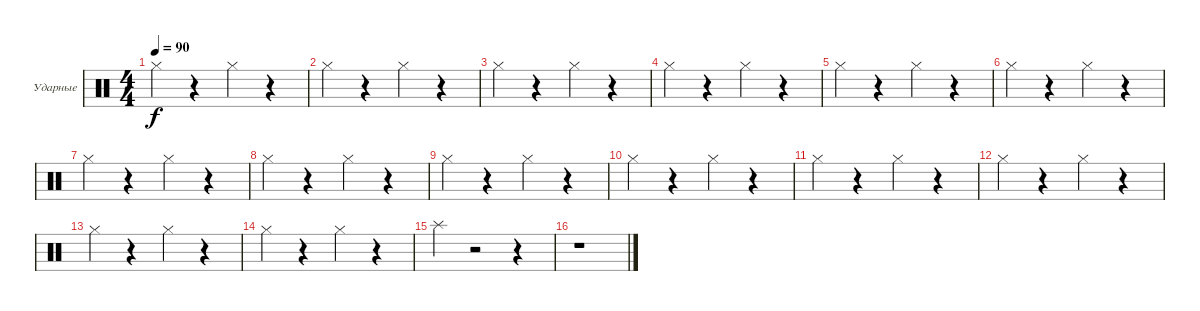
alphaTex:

\defaultSystemsLayout 4
\bracketExtendMode groupsimilarinstruments
\firstSystemTrackNameOrientation horizontal
\otherSystemsTrackNameOrientation horizontal
\track ("Drums" "Ударные") {instrument percussion}
\staff {score}
\articulation defaults
\ts (4 4)
\tempo 90
\clef neutral
\ks c "Hi-Hat (closed)".4{dy f}
r.4 "Hi-Hat (closed)".4 r.4 |
"Hi-Hat (closed)".4 r.4 "Hi-Hat (closed)".4 r.4 |
"Hi-Hat (closed)".4 r.4 "Hi-Hat (closed)".4 r.4 |
"Hi-Hat (closed)".4 r.4 "Hi-Hat (closed)".4 r.4 |
"Hi-Hat (closed)".4 r.4 "Hi-Hat (closed)".4 r.4 |
"Hi-Hat (closed)".4 r.4 "Hi-Hat (closed)".4 r.4 |
"Hi-Hat (closed)".4 r.4 "Hi-Hat (closed)".4 r.4 |
"Hi-Hat (closed)".4 r.4 "Hi-Hat (closed)".4 r.4 |
"Hi-Hat (closed)".4 r.4 "Hi-Hat (closed)".4 r.4 |
"Hi-Hat (closed)".4 r.4 "Hi-Hat (closed)".4 r.4 |
"Hi-Hat (closed)".4 r.4 "Hi-Hat (closed)".4 r.4 |
"Hi-Hat (closed)".4 r.4 "Hi-Hat (closed)".4 r.4 |
"Hi-Hat (closed)".4 r.4 "Hi-Hat (closed)".4 r.4 |
"Hi-Hat (closed)".4 r.4 "Hi-Hat (closed)".4 r.4 |
"Splash (hit)".4 r.2 r.4 |
r.1
